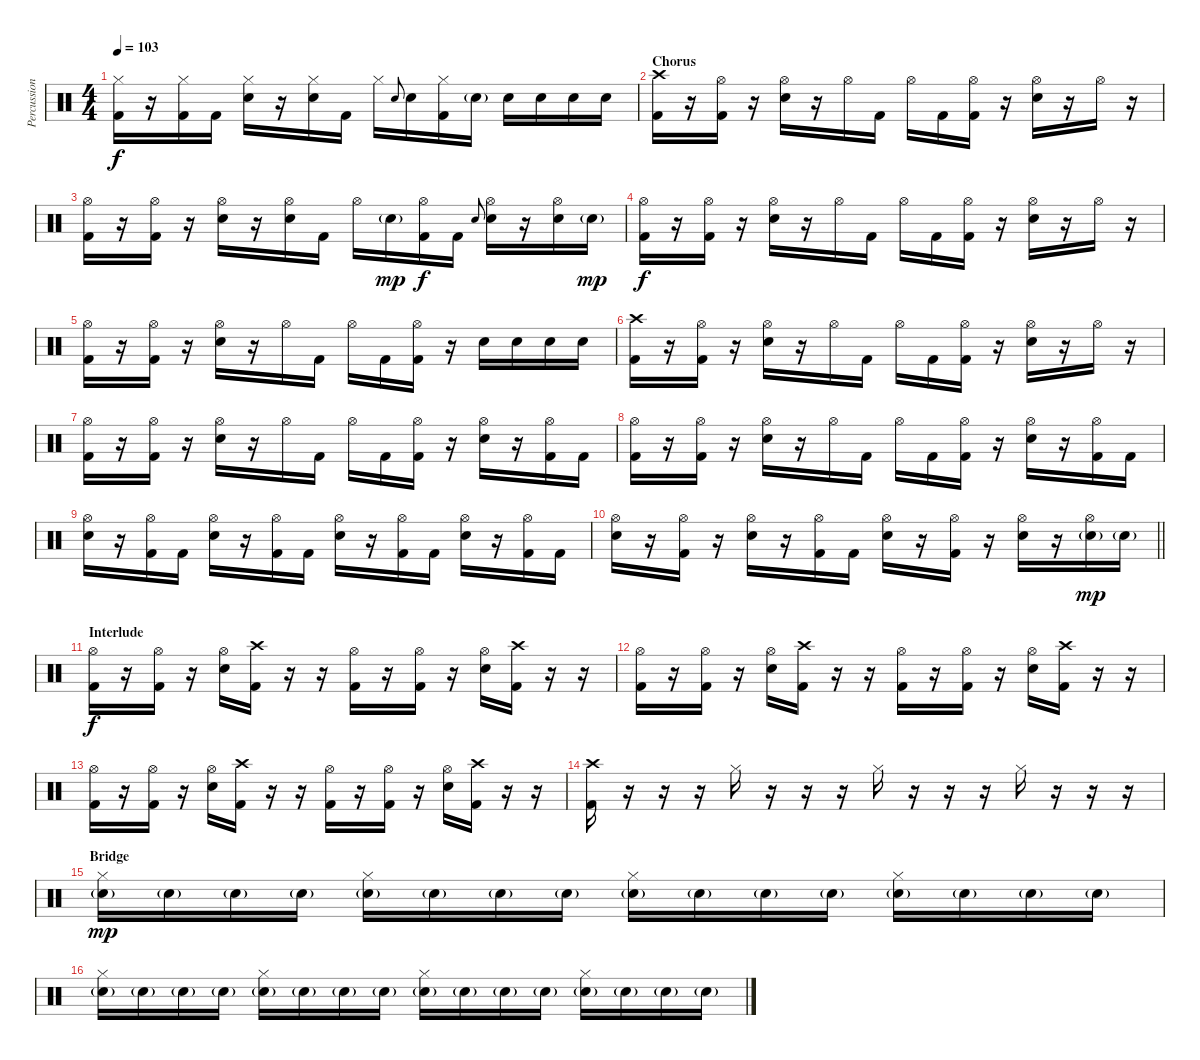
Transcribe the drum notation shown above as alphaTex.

\track ("Percussion" "Percussion") {instrument percussion}
\staff {score}
\articulation defaults
\ts (4 4)
\tempo 103
\clef neutral
\ks c
("Hi-Hat (closed)" "Kick (hit) 2").16{dy f} r.16 ("Hi-Hat (closed)" "Kick (hit) 2").16 "Kick (hit) 2".16 ("Hi-Hat (closed)" "Snare (hit) 2").16 r.16 ("Hi-Hat (closed)" "Snare (hit) 2").16 "Kick (hit) 2".16 "Hi-Hat (closed)".16 "Snare (hit) 2".8{gr onbeat} "Snare (hit) 2".16 ("Hi-Hat (closed)" "Kick (hit) 2").16 "Snare (hit) 2"{g}.16 "Snare (hit) 2".16 "Snare (hit) 2".16 "Snare (hit) 2".16 "Snare (hit) 2".16 |
\section ("" "Chorus")
("Crash high (hit)" "Kick (hit) 2").16 r.16 ("Hi-Hat (open)" "Kick (hit) 2").16 r.16 ("Hi-Hat (open)" "Snare (hit) 2").16 r.16 "Hi-Hat (open)".16 "Kick (hit) 2".16 "Hi-Hat (open)".16 "Kick (hit) 2".16 ("Hi-Hat (open)" "Kick (hit) 2").16 r.16 ("Hi-Hat (open)" "Snare (hit) 2").16 r.16 "Hi-Hat (open)".16 r.16 |
("Hi-Hat (open)" "Kick (hit) 2").16 r.16 ("Hi-Hat (open)" "Kick (hit) 2").16 r.16 ("Hi-Hat (open)" "Snare (hit) 2").16 r.16 ("Hi-Hat (open)" "Snare (hit) 2").16 "Kick (hit) 2".16 "Hi-Hat (open)".16 "Snare (hit) 2"{g}.16{dy mp} ("Hi-Hat (open)" "Kick (hit) 2").16{dy f} "Kick (hit) 2".16 "Snare (hit) 2".8{gr onbeat} ("Hi-Hat (open)" "Snare (hit) 2").16 r.16 ("Hi-Hat (open)" "Snare (hit) 2").16 "Snare (hit) 2"{g}.16{dy mp} |
("Hi-Hat (open)" "Kick (hit) 2").16{dy f} r.16 ("Hi-Hat (open)" "Kick (hit) 2").16 r.16 ("Hi-Hat (open)" "Snare (hit) 2").16 r.16 "Hi-Hat (open)".16 "Kick (hit) 2".16 "Hi-Hat (open)".16 "Kick (hit) 2".16 ("Hi-Hat (open)" "Kick (hit) 2").16 r.16 ("Hi-Hat (open)" "Snare (hit) 2").16 r.16 "Hi-Hat (open)".16 r.16 |
("Hi-Hat (open)" "Kick (hit) 2").16 r.16 ("Hi-Hat (open)" "Kick (hit) 2").16 r.16 ("Hi-Hat (open)" "Snare (hit) 2").16 r.16 "Hi-Hat (open)".16 "Kick (hit) 2".16 "Hi-Hat (open)".16 "Kick (hit) 2".16 ("Hi-Hat (open)" "Kick (hit) 2").16 r.16 "Snare (hit) 2".16 "Snare (hit) 2".16 "Snare (hit) 2".16 "Snare (hit) 2".16 |
("Crash high (hit)" "Kick (hit) 2").16 r.16 ("Hi-Hat (open)" "Kick (hit) 2").16 r.16 ("Hi-Hat (open)" "Snare (hit) 2").16 r.16 "Hi-Hat (open)".16 "Kick (hit) 2".16 "Hi-Hat (open)".16 "Kick (hit) 2".16 ("Hi-Hat (open)" "Kick (hit) 2").16 r.16 ("Hi-Hat (open)" "Snare (hit) 2").16 r.16 "Hi-Hat (open)".16 r.16 |
("Hi-Hat (open)" "Kick (hit) 2").16 r.16 ("Hi-Hat (open)" "Kick (hit) 2").16 r.16 ("Hi-Hat (open)" "Snare (hit) 2").16 r.16 "Hi-Hat (open)".16 "Kick (hit) 2".16 "Hi-Hat (open)".16 "Kick (hit) 2".16 ("Hi-Hat (open)" "Kick (hit) 2").16 r.16 ("Hi-Hat (open)" "Snare (hit) 2").16 r.16 ("Hi-Hat (open)" "Kick (hit) 2").16 "Kick (hit) 2".16 |
("Hi-Hat (open)" "Kick (hit) 2").16 r.16 ("Hi-Hat (open)" "Kick (hit) 2").16 r.16 ("Hi-Hat (open)" "Snare (hit) 2").16 r.16 "Hi-Hat (open)".16 "Kick (hit) 2".16 "Hi-Hat (open)".16 "Kick (hit) 2".16 ("Hi-Hat (open)" "Kick (hit) 2").16 r.16 ("Hi-Hat (open)" "Snare (hit) 2").16 r.16 ("Hi-Hat (open)" "Kick (hit) 2").16 "Kick (hit) 2".16 |
("Hi-Hat (open)" "Snare (hit) 2").16 r.16 ("Hi-Hat (open)" "Kick (hit) 2").16 "Kick (hit) 2".16 ("Hi-Hat (open)" "Snare (hit) 2").16 r.16 ("Hi-Hat (open)" "Kick (hit) 2").16 "Kick (hit) 2".16 ("Hi-Hat (open)" "Snare (hit) 2").16 r.16 ("Hi-Hat (open)" "Kick (hit) 2").16 "Kick (hit) 2".16 ("Hi-Hat (open)" "Snare (hit) 2").16 r.16 ("Hi-Hat (open)" "Kick (hit) 2").16 "Kick (hit) 2".16 |
\barLineRight lightlight
("Hi-Hat (open)" "Snare (hit) 2").16 r.16 ("Hi-Hat (open)" "Kick (hit) 2").16 r.16 ("Hi-Hat (open)" "Snare (hit) 2").16 r.16 ("Hi-Hat (open)" "Kick (hit) 2").16 "Kick (hit) 2".16 ("Hi-Hat (open)" "Snare (hit) 2").16 r.16 ("Hi-Hat (open)" "Kick (hit) 2").16 r.16 ("Hi-Hat (open)" "Snare (hit) 2").16 r.16 ("Hi-Hat (open)" "Snare (hit) 2"{g}).16{dy mp} "Snare (hit) 2"{g}.16 |
\section ("" "Interlude")
("Hi-Hat (open)" "Kick (hit) 2").16{dy f} r.16 ("Hi-Hat (open)" "Kick (hit) 2").16 r.16 ("Hi-Hat (open)" "Snare (hit) 2").16 ("Crash high (hit)" "Kick (hit) 2").16 r.16 r.16 ("Hi-Hat (open)" "Kick (hit) 2").16 r.16 ("Hi-Hat (open)" "Kick (hit) 2").16 r.16 ("Hi-Hat (open)" "Snare (hit) 2").16 ("Crash high (hit)" "Kick (hit) 2").16 r.16 r.16 |
("Hi-Hat (open)" "Kick (hit) 2").16 r.16 ("Hi-Hat (open)" "Kick (hit) 2").16 r.16 ("Hi-Hat (open)" "Snare (hit) 2").16 ("Crash high (hit)" "Kick (hit) 2").16 r.16 r.16 ("Hi-Hat (open)" "Kick (hit) 2").16 r.16 ("Hi-Hat (open)" "Kick (hit) 2").16 r.16 ("Hi-Hat (open)" "Snare (hit) 2").16 ("Crash high (hit)" "Kick (hit) 2").16 r.16 r.16 |
("Hi-Hat (open)" "Kick (hit) 2").16 r.16 ("Hi-Hat (open)" "Kick (hit) 2").16 r.16 ("Hi-Hat (open)" "Snare (hit) 2").16 ("Crash high (hit)" "Kick (hit) 2").16 r.16 r.16 ("Hi-Hat (open)" "Kick (hit) 2").16 r.16 ("Hi-Hat (open)" "Kick (hit) 2").16 r.16 ("Hi-Hat (open)" "Snare (hit) 2").16 ("Crash high (hit)" "Kick (hit) 2").16 r.16 r.16 |
("Crash high (hit)" "Kick (hit) 2").16 r.16 r.16 r.16 "Hi-Hat (closed)".16 r.16 r.16 r.16 "Hi-Hat (closed)".16 r.16 r.16 r.16 "Hi-Hat (closed)".16 r.16 r.16 r.16{volume 0} |
\section ("" "Bridge")
("Hi-Hat (closed)" "Snare (hit) 2"{g}).16{dy mp volume 8} "Snare (hit) 2"{g}.16 "Snare (hit) 2"{g}.16 "Snare (hit) 2"{g}.16 ("Hi-Hat (closed)" "Snare (hit) 2"{g}).16 "Snare (hit) 2"{g}.16 "Snare (hit) 2"{g}.16 "Snare (hit) 2"{g}.16 ("Hi-Hat (closed)" "Snare (hit) 2"{g}).16 "Snare (hit) 2"{g}.16 "Snare (hit) 2"{g}.16 "Snare (hit) 2"{g}.16 ("Hi-Hat (closed)" "Snare (hit) 2"{g}).16 "Snare (hit) 2"{g}.16 "Snare (hit) 2"{g}.16 "Snare (hit) 2"{g}.16 |
("Hi-Hat (closed)" "Snare (hit) 2"{g}).16 "Snare (hit) 2"{g}.16 "Snare (hit) 2"{g}.16 "Snare (hit) 2"{g}.16 ("Hi-Hat (closed)" "Snare (hit) 2"{g}).16 "Snare (hit) 2"{g}.16 "Snare (hit) 2"{g}.16 "Snare (hit) 2"{g}.16 ("Hi-Hat (closed)" "Snare (hit) 2"{g}).16 "Snare (hit) 2"{g}.16 "Snare (hit) 2"{g}.16 "Snare (hit) 2"{g}.16 ("Hi-Hat (closed)" "Snare (hit) 2"{g}).16 "Snare (hit) 2"{g}.16 "Snare (hit) 2"{g}.16 "Snare (hit) 2"{g}.16
